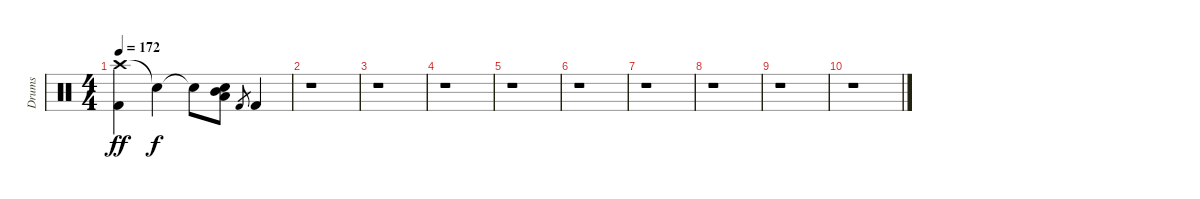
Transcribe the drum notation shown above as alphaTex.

\track ("Drums" "Drums") {instrument percussion}
\staff {score}
\articulation defaults
\ts (4 4)
\tempo 172
\clef neutral
\ks c
("Crash high (hit)" "Kick (hit) 2").4{dy ff} "Snare (hit)"{t}.4{dy f} "Snare (hit)"{t}.8 ("Mid Tom (hit)" "Electric Snare (hit)" "Low Tom (hit)").8 "Kick (hit) 2".8{gr} "Kick (hit) 2".4 |
r.1 |
r.1 |
r.1 |
r.1 |
r.1 |
r.1 |
r.1 |
r.1 |
r.1
